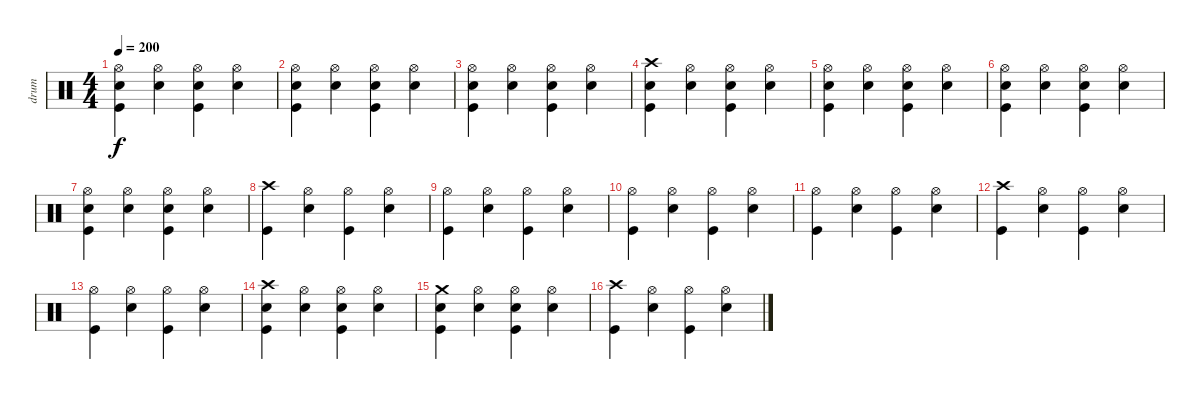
\track ("drum" "drum") {instrument percussion}
\staff {score}
\articulation defaults
\ts (4 4)
\tempo 200
\clef neutral
\ks c
("Hi-Hat (open)" "Snare (hit) 2" "Kick (hit)").4{dy f} ("Hi-Hat (open)" "Snare (hit) 2").4 ("Hi-Hat (open)" "Snare (hit) 2" "Kick (hit)").4 ("Hi-Hat (open)" "Snare (hit) 2").4 |
("Hi-Hat (open)" "Snare (hit) 2" "Kick (hit)").4 ("Hi-Hat (open)" "Snare (hit) 2").4 ("Hi-Hat (open)" "Snare (hit) 2" "Kick (hit)").4 ("Hi-Hat (open)" "Snare (hit) 2").4 |
("Hi-Hat (open)" "Snare (hit) 2" "Kick (hit)").4 ("Hi-Hat (open)" "Snare (hit) 2").4 ("Hi-Hat (open)" "Snare (hit) 2" "Kick (hit)").4 ("Hi-Hat (open)" "Snare (hit) 2").4 |
("Crash high (hit)" "Snare (hit) 2" "Kick (hit)").4 ("Hi-Hat (open)" "Snare (hit) 2").4 ("Hi-Hat (open)" "Snare (hit) 2" "Kick (hit)").4 ("Hi-Hat (open)" "Snare (hit) 2").4 |
("Hi-Hat (open)" "Snare (hit) 2" "Kick (hit)").4 ("Hi-Hat (open)" "Snare (hit) 2").4 ("Hi-Hat (open)" "Snare (hit) 2" "Kick (hit)").4 ("Hi-Hat (open)" "Snare (hit) 2").4 |
("Hi-Hat (open)" "Snare (hit) 2" "Kick (hit)").4 ("Hi-Hat (open)" "Snare (hit) 2").4 ("Hi-Hat (open)" "Snare (hit) 2" "Kick (hit)").4 ("Hi-Hat (open)" "Snare (hit) 2").4 |
("Hi-Hat (open)" "Snare (hit) 2" "Kick (hit)").4 ("Hi-Hat (open)" "Snare (hit) 2").4 ("Hi-Hat (open)" "Snare (hit) 2" "Kick (hit)").4 ("Hi-Hat (open)" "Snare (hit) 2").4 |
("Crash high (hit)" "Kick (hit)").4 ("Hi-Hat (open)" "Snare (hit) 2").4 ("Hi-Hat (open)" "Kick (hit)").4 ("Hi-Hat (open)" "Snare (hit) 2").4 |
("Hi-Hat (open)" "Kick (hit)").4 ("Hi-Hat (open)" "Snare (hit) 2").4 ("Hi-Hat (open)" "Kick (hit)").4 ("Hi-Hat (open)" "Snare (hit) 2").4 |
("Hi-Hat (open)" "Kick (hit)").4 ("Hi-Hat (open)" "Snare (hit) 2").4 ("Hi-Hat (open)" "Kick (hit)").4 ("Hi-Hat (open)" "Snare (hit) 2").4 |
("Hi-Hat (open)" "Kick (hit)").4 ("Hi-Hat (open)" "Snare (hit) 2").4 ("Hi-Hat (open)" "Kick (hit)").4 ("Hi-Hat (open)" "Snare (hit) 2").4 |
("Crash high (hit)" "Kick (hit)").4 ("Hi-Hat (open)" "Snare (hit) 2").4 ("Hi-Hat (open)" "Kick (hit)").4 ("Hi-Hat (open)" "Snare (hit) 2").4 |
("Hi-Hat (open)" "Kick (hit)").4 ("Hi-Hat (open)" "Snare (hit) 2").4 ("Hi-Hat (open)" "Kick (hit)").4 ("Hi-Hat (open)" "Snare (hit) 2").4 |
("Crash high (hit)" "Snare (hit) 2" "Kick (hit)").4 ("Hi-Hat (open)" "Snare (hit) 2").4 ("Hi-Hat (open)" "Snare (hit) 2" "Kick (hit)").4 ("Hi-Hat (open)" "Snare (hit) 2").4 |
("Crash medium (hit)" "Snare (hit) 2" "Kick (hit)").4 ("Hi-Hat (open)" "Snare (hit) 2").4 ("Hi-Hat (open)" "Snare (hit) 2" "Kick (hit)").4 ("Hi-Hat (open)" "Snare (hit) 2").4 |
("Crash high (hit)" "Kick (hit)").4 ("Hi-Hat (open)" "Snare (hit) 2").4 ("Hi-Hat (open)" "Kick (hit)").4 ("Hi-Hat (open)" "Snare (hit) 2").4
